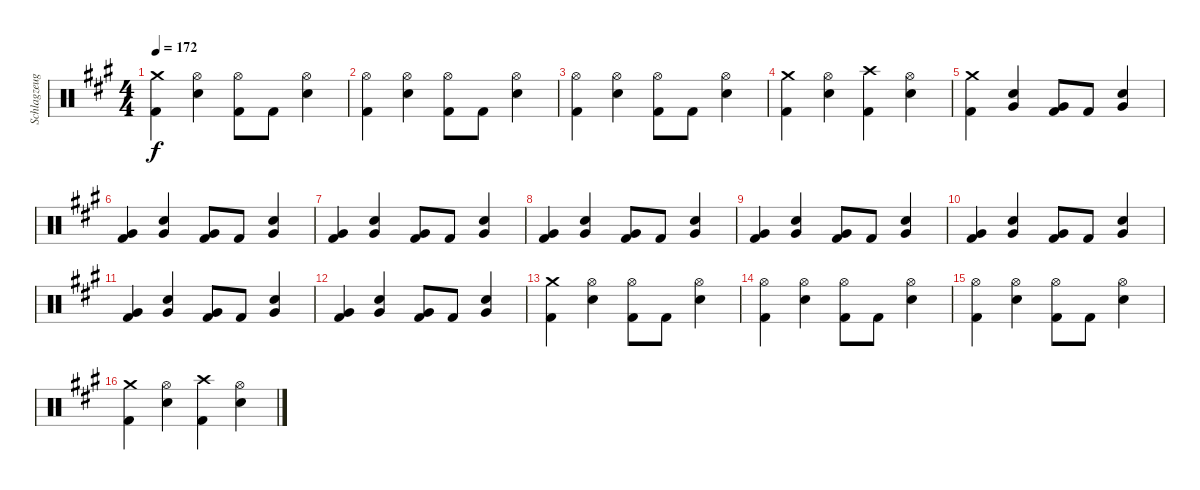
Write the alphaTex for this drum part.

\track ("Schlagzeug" "Schlagzeug") {instrument percussion}
\staff {score}
\articulation defaults
\ts (4 4)
\tempo 172
\clef neutral
\ks a
("Crash medium (hit)" "Kick (hit) 2").4{dy f} ("Hi-Hat (open)" "Snare (hit) 2").4 ("Hi-Hat (open)" "Kick (hit) 2").8 "Kick (hit) 2".8 ("Hi-Hat (open)" "Snare (hit) 2").4 |
("Hi-Hat (open)" "Kick (hit) 2").4 ("Hi-Hat (open)" "Snare (hit) 2").4 ("Hi-Hat (open)" "Kick (hit) 2").8 "Kick (hit) 2".8 ("Hi-Hat (open)" "Snare (hit) 2").4 |
("Hi-Hat (open)" "Kick (hit) 2").4 ("Hi-Hat (open)" "Snare (hit) 2").4 ("Hi-Hat (open)" "Kick (hit) 2").8 "Kick (hit) 2".8 ("Hi-Hat (open)" "Snare (hit) 2").4 |
("Crash medium (hit)" "Kick (hit) 2").4 ("Hi-Hat (open)" "Snare (hit) 2").4 ("Crash high (hit)" "Kick (hit) 2").4 ("Hi-Hat (open)" "Snare (hit) 2").4 |
("Crash medium (hit)" "Kick (hit) 2").4 ("Snare (hit) 2" "Very Low Tom (hit)").4 ("Very Low Tom (hit)" "Kick (hit) 2").8 "Kick (hit) 2".8 ("Snare (hit) 2" "Very Low Tom (hit)").4 |
("Very Low Tom (hit)" "Kick (hit) 2").4 ("Snare (hit) 2" "Very Low Tom (hit)").4 ("Very Low Tom (hit)" "Kick (hit) 2").8 "Kick (hit) 2".8 ("Snare (hit) 2" "Very Low Tom (hit)").4 |
("Very Low Tom (hit)" "Kick (hit) 2").4 ("Snare (hit) 2" "Very Low Tom (hit)").4 ("Very Low Tom (hit)" "Kick (hit) 2").8 "Kick (hit) 2".8 ("Snare (hit) 2" "Very Low Tom (hit)").4 |
("Very Low Tom (hit)" "Kick (hit) 2").4 ("Snare (hit) 2" "Very Low Tom (hit)").4 ("Very Low Tom (hit)" "Kick (hit) 2").8 "Kick (hit) 2".8 ("Snare (hit) 2" "Very Low Tom (hit)").4 |
("Very Low Tom (hit)" "Kick (hit) 2").4 ("Snare (hit) 2" "Very Low Tom (hit)").4 ("Very Low Tom (hit)" "Kick (hit) 2").8 "Kick (hit) 2".8 ("Snare (hit) 2" "Very Low Tom (hit)").4 |
("Very Low Tom (hit)" "Kick (hit) 2").4 ("Snare (hit) 2" "Very Low Tom (hit)").4 ("Very Low Tom (hit)" "Kick (hit) 2").8 "Kick (hit) 2".8 ("Snare (hit) 2" "Very Low Tom (hit)").4 |
("Very Low Tom (hit)" "Kick (hit) 2").4 ("Snare (hit) 2" "Very Low Tom (hit)").4 ("Very Low Tom (hit)" "Kick (hit) 2").8 "Kick (hit) 2".8 ("Snare (hit) 2" "Very Low Tom (hit)").4 |
("Very Low Tom (hit)" "Kick (hit) 2").4 ("Snare (hit) 2" "Very Low Tom (hit)").4 ("Very Low Tom (hit)" "Kick (hit) 2").8 "Kick (hit) 2".8 ("Snare (hit) 2" "Very Low Tom (hit)").4 |
("Crash medium (hit)" "Kick (hit) 2").4 ("Hi-Hat (open)" "Snare (hit) 2").4 ("Hi-Hat (open)" "Kick (hit) 2").8 "Kick (hit) 2".8 ("Hi-Hat (open)" "Snare (hit) 2").4 |
("Hi-Hat (open)" "Kick (hit) 2").4 ("Hi-Hat (open)" "Snare (hit) 2").4 ("Hi-Hat (open)" "Kick (hit) 2").8 "Kick (hit) 2".8 ("Hi-Hat (open)" "Snare (hit) 2").4 |
("Hi-Hat (open)" "Kick (hit) 2").4 ("Hi-Hat (open)" "Snare (hit) 2").4 ("Hi-Hat (open)" "Kick (hit) 2").8 "Kick (hit) 2".8 ("Hi-Hat (open)" "Snare (hit) 2").4 |
("Crash medium (hit)" "Kick (hit) 2").4 ("Hi-Hat (open)" "Snare (hit) 2").4 ("Crash high (hit)" "Kick (hit) 2").4 ("Hi-Hat (open)" "Snare (hit) 2").4
